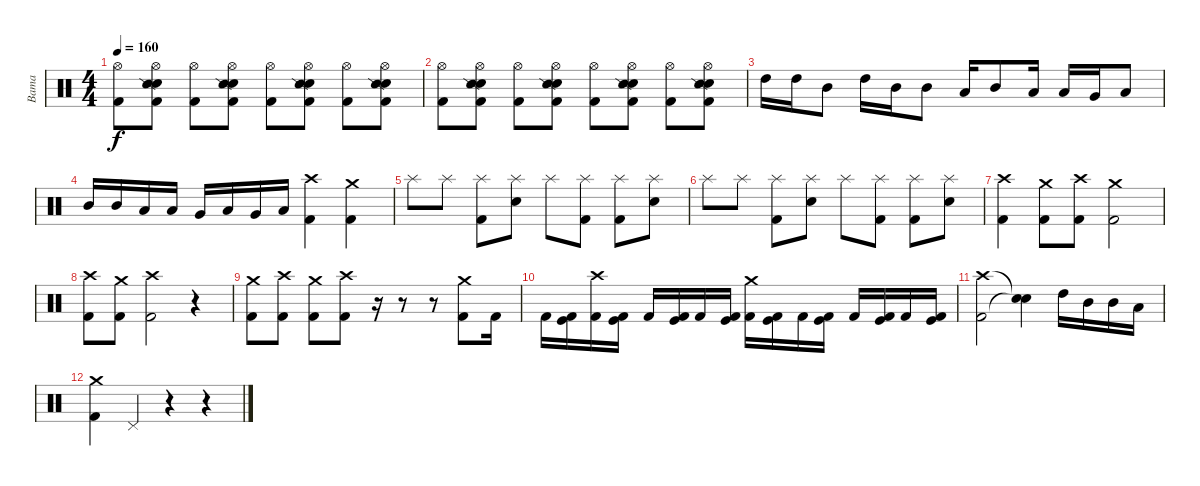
\track ("Bama" "Bama") {instrument percussion}
\staff {score}
\articulation defaults
\ts (4 4)
\tempo 160
\clef neutral
\ks c
("Hi-Hat (open)" "Kick (hit) 2").8{dy f} ("Hi-Hat (open)" "Electric Snare (hit)" "Snare (side stick) 2" "Kick (hit) 2").8 ("Hi-Hat (open)" "Kick (hit) 2").8 ("Hi-Hat (open)" "Electric Snare (hit)" "Snare (side stick) 2" "Kick (hit) 2").8 ("Hi-Hat (open)" "Kick (hit) 2").8 ("Hi-Hat (open)" "Electric Snare (hit)" "Snare (side stick) 2" "Kick (hit) 2").8 ("Hi-Hat (open)" "Kick (hit) 2").8 ("Hi-Hat (open)" "Electric Snare (hit)" "Snare (side stick) 2" "Kick (hit) 2").8 |
("Hi-Hat (open)" "Kick (hit) 2").8 ("Hi-Hat (open)" "Electric Snare (hit)" "Snare (side stick) 2" "Kick (hit) 2").8 ("Hi-Hat (open)" "Kick (hit) 2").8 ("Hi-Hat (open)" "Electric Snare (hit)" "Snare (side stick) 2" "Kick (hit) 2").8 ("Hi-Hat (open)" "Kick (hit) 2").8 ("Hi-Hat (open)" "Electric Snare (hit)" "Snare (side stick) 2" "Kick (hit) 2").8 ("Hi-Hat (open)" "Kick (hit) 2").8 ("Hi-Hat (open)" "Electric Snare (hit)" "Snare (side stick) 2" "Kick (hit) 2").8 |
"High Tom (hit)".16 "High Tom (hit)".16 "Mid Tom (hit)".8 "High Tom (hit)".16 "Mid Tom (hit)".16 "Mid Tom (hit)".8 "Low Tom (hit)".16 "Mid Tom (hit)".8 "Low Tom (hit)".16 "Low Tom (hit)".16 "Very Low Tom (hit)".16 "Low Floor Tom (hit)".8 |
"Mid Tom (hit)".16 "Mid Tom (hit)".16 "Low Tom (hit)".16 "Low Tom (hit)".16 "Very Low Tom (hit)".16 "Low Tom (hit)".16 "Very Low Tom (hit)".16 "Low Floor Tom (hit)".16 ("Crash high (hit)" "Kick (hit) 2").4 ("Crash medium (hit)" "Kick (hit) 2").4 |
"Splash (hit)".8 "Splash (hit)".8 ("Splash (hit)" "Kick (hit) 2").8 ("Splash (hit)" "Electric Snare (hit)").8 "Splash (hit)".8 ("Splash (hit)" "Kick (hit) 2").8 ("Splash (hit)" "Kick (hit) 2").8 ("Splash (hit)" "Electric Snare (hit)").8 |
"Splash (hit)".8 "Splash (hit)".8 ("Splash (hit)" "Kick (hit) 2").8 ("Splash (hit)" "Electric Snare (hit)").8 "Splash (hit)".8 ("Splash (hit)" "Kick (hit) 2").8 ("Splash (hit)" "Kick (hit) 2").8 ("Splash (hit)" "Electric Snare (hit)").8 |
("Crash high (hit)" "Kick (hit) 2").4 ("Crash medium (hit)" "Kick (hit) 2").8 ("Crash high (hit)" "Kick (hit) 2").8 ("Crash medium (hit)" "Kick (hit) 2").2 |
("Crash high (hit)" "Kick (hit) 2").8 ("Crash medium (hit)" "Kick (hit) 2").8 ("Crash high (hit)" "Kick (hit) 2").2 r.4 |
("Crash medium (hit)" "Kick (hit) 2").8 ("Crash high (hit)" "Kick (hit) 2").8 ("Crash medium (hit)" "Kick (hit) 2").8 ("Crash high (hit)" "Kick (hit) 2").8 r.16 r.8 r.8 ("Crash medium (hit)" "Kick (hit) 2").8 "Kick (hit) 2".16 |
"Kick (hit) 2".16 ("Kick (hit)" "Kick (hit) 2").16 ("Crash high (hit)" "Kick (hit) 2").16 ("Kick (hit)" "Kick (hit) 2").16 "Kick (hit) 2".16 ("Kick (hit)" "Kick (hit) 2").16 "Kick (hit) 2".16 ("Kick (hit)" "Kick (hit) 2").16 ("Crash medium (hit)" "Kick (hit) 2").16 ("Kick (hit)" "Kick (hit) 2").16 "Kick (hit) 2".16 ("Kick (hit)" "Kick (hit) 2").16 "Kick (hit) 2".16 ("Kick (hit)" "Kick (hit) 2").16 "Kick (hit) 2".16 ("Kick (hit)" "Kick (hit) 2").16 |
("Crash high (hit)" "Kick (hit) 2").2 ("Snare (hit)"{t} "Snare (hit)"{t}).4 "High Tom (hit)".16 "Mid Tom (hit)".16 "Mid Tom (hit)".16 "Low Floor Tom (hit)".16 |
("Crash medium (hit)" "Kick (hit) 2").4 "Pedal Hi-Hat (hit)".4 r.4 r.4
